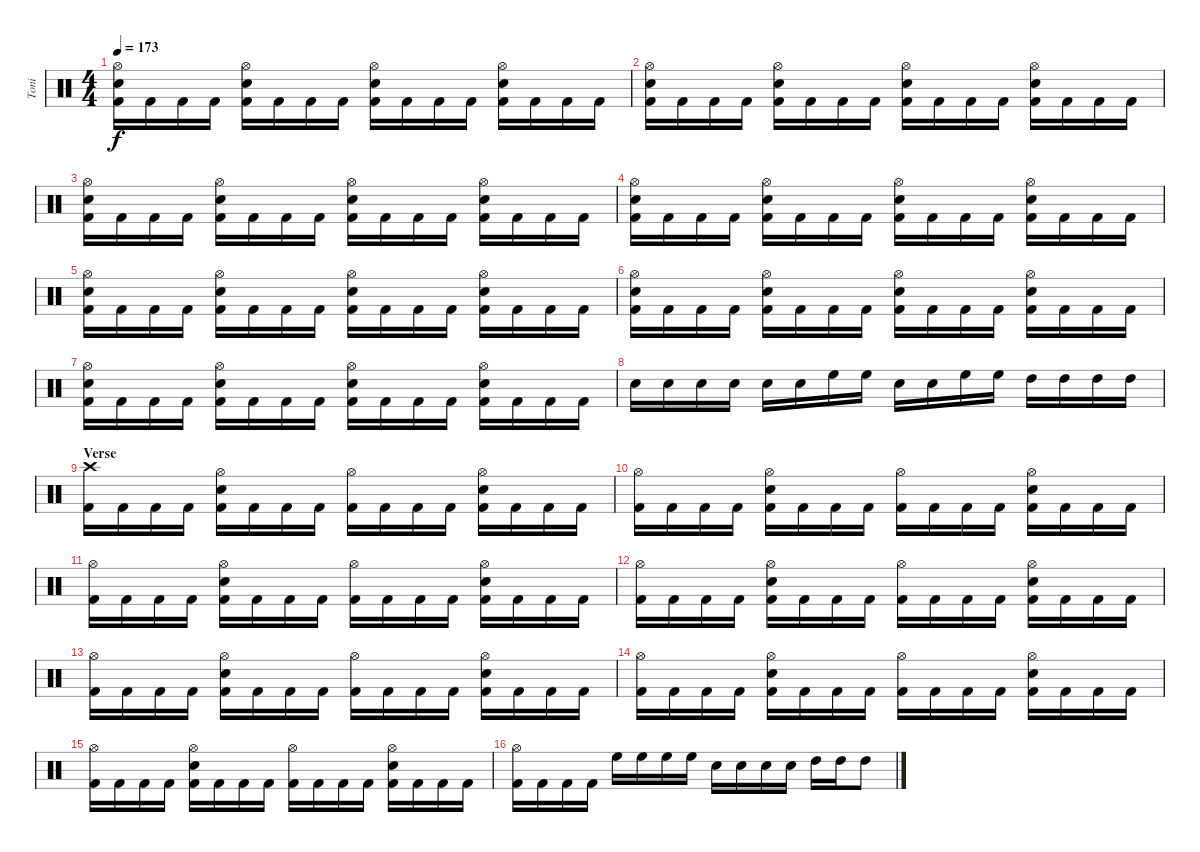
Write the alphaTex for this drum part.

\track ("Toni" "Toni") {instrument percussion}
\staff {score}
\articulation defaults
\ts (4 4)
\tempo 173
\clef neutral
\ks c
("Hi-Hat (open)" "Electric Snare (hit)" "Kick (hit) 2").16{dy f} "Kick (hit) 2".16 "Kick (hit) 2".16 "Kick (hit) 2".16 ("Hi-Hat (open)" "Electric Snare (hit)" "Kick (hit) 2").16 "Kick (hit) 2".16 "Kick (hit) 2".16 "Kick (hit) 2".16 ("Hi-Hat (open)" "Electric Snare (hit)" "Kick (hit) 2").16 "Kick (hit) 2".16 "Kick (hit) 2".16 "Kick (hit) 2".16 ("Hi-Hat (open)" "Electric Snare (hit)" "Kick (hit) 2").16 "Kick (hit) 2".16 "Kick (hit) 2".16 "Kick (hit) 2".16 |
("Hi-Hat (open)" "Electric Snare (hit)" "Kick (hit) 2").16 "Kick (hit) 2".16 "Kick (hit) 2".16 "Kick (hit) 2".16 ("Hi-Hat (open)" "Electric Snare (hit)" "Kick (hit) 2").16 "Kick (hit) 2".16 "Kick (hit) 2".16 "Kick (hit) 2".16 ("Hi-Hat (open)" "Electric Snare (hit)" "Kick (hit) 2").16 "Kick (hit) 2".16 "Kick (hit) 2".16 "Kick (hit) 2".16 ("Hi-Hat (open)" "Electric Snare (hit)" "Kick (hit) 2").16 "Kick (hit) 2".16 "Kick (hit) 2".16 "Kick (hit) 2".16 |
("Hi-Hat (open)" "Electric Snare (hit)" "Kick (hit) 2").16 "Kick (hit) 2".16 "Kick (hit) 2".16 "Kick (hit) 2".16 ("Hi-Hat (open)" "Electric Snare (hit)" "Kick (hit) 2").16 "Kick (hit) 2".16 "Kick (hit) 2".16 "Kick (hit) 2".16 ("Hi-Hat (open)" "Electric Snare (hit)" "Kick (hit) 2").16 "Kick (hit) 2".16 "Kick (hit) 2".16 "Kick (hit) 2".16 ("Hi-Hat (open)" "Electric Snare (hit)" "Kick (hit) 2").16 "Kick (hit) 2".16 "Kick (hit) 2".16 "Kick (hit) 2".16 |
("Hi-Hat (open)" "Electric Snare (hit)" "Kick (hit) 2").16 "Kick (hit) 2".16 "Kick (hit) 2".16 "Kick (hit) 2".16 ("Hi-Hat (open)" "Electric Snare (hit)" "Kick (hit) 2").16 "Kick (hit) 2".16 "Kick (hit) 2".16 "Kick (hit) 2".16 ("Hi-Hat (open)" "Electric Snare (hit)" "Kick (hit) 2").16 "Kick (hit) 2".16 "Kick (hit) 2".16 "Kick (hit) 2".16 ("Hi-Hat (open)" "Electric Snare (hit)" "Kick (hit) 2").16 "Kick (hit) 2".16 "Kick (hit) 2".16 "Kick (hit) 2".16 |
("Hi-Hat (open)" "Electric Snare (hit)" "Kick (hit) 2").16 "Kick (hit) 2".16 "Kick (hit) 2".16 "Kick (hit) 2".16 ("Hi-Hat (open)" "Electric Snare (hit)" "Kick (hit) 2").16 "Kick (hit) 2".16 "Kick (hit) 2".16 "Kick (hit) 2".16 ("Hi-Hat (open)" "Electric Snare (hit)" "Kick (hit) 2").16 "Kick (hit) 2".16 "Kick (hit) 2".16 "Kick (hit) 2".16 ("Hi-Hat (open)" "Electric Snare (hit)" "Kick (hit) 2").16 "Kick (hit) 2".16 "Kick (hit) 2".16 "Kick (hit) 2".16 |
("Hi-Hat (open)" "Electric Snare (hit)" "Kick (hit) 2").16 "Kick (hit) 2".16 "Kick (hit) 2".16 "Kick (hit) 2".16 ("Hi-Hat (open)" "Electric Snare (hit)" "Kick (hit) 2").16 "Kick (hit) 2".16 "Kick (hit) 2".16 "Kick (hit) 2".16 ("Hi-Hat (open)" "Electric Snare (hit)" "Kick (hit) 2").16 "Kick (hit) 2".16 "Kick (hit) 2".16 "Kick (hit) 2".16 ("Hi-Hat (open)" "Electric Snare (hit)" "Kick (hit) 2").16 "Kick (hit) 2".16 "Kick (hit) 2".16 "Kick (hit) 2".16 |
("Hi-Hat (open)" "Electric Snare (hit)" "Kick (hit) 2").16 "Kick (hit) 2".16 "Kick (hit) 2".16 "Kick (hit) 2".16 ("Hi-Hat (open)" "Electric Snare (hit)" "Kick (hit) 2").16 "Kick (hit) 2".16 "Kick (hit) 2".16 "Kick (hit) 2".16 ("Hi-Hat (open)" "Electric Snare (hit)" "Kick (hit) 2").16 "Kick (hit) 2".16 "Kick (hit) 2".16 "Kick (hit) 2".16 ("Hi-Hat (open)" "Electric Snare (hit)" "Kick (hit) 2").16 "Kick (hit) 2".16 "Kick (hit) 2".16 "Kick (hit) 2".16 |
"Electric Snare (hit)".16 "Electric Snare (hit)".16 "Electric Snare (hit)".16 "Electric Snare (hit)".16 "Electric Snare (hit)".16 "Electric Snare (hit)".16 "High Floor Tom (hit)".16 "High Floor Tom (hit)".16 "Electric Snare (hit)".16 "Electric Snare (hit)".16 "High Floor Tom (hit)".16 "High Floor Tom (hit)".16 "High Tom (hit)".16 "High Tom (hit)".16 "High Tom (hit)".16 "High Tom (hit)".16 |
\section ("" "Verse")
("Crash high (hit)" "Kick (hit) 2").16 "Kick (hit) 2".16 "Kick (hit) 2".16 "Kick (hit) 2".16 ("Hi-Hat (open)" "Electric Snare (hit)" "Kick (hit) 2").16 "Kick (hit) 2".16 "Kick (hit) 2".16 "Kick (hit) 2".16 ("Hi-Hat (open)" "Kick (hit) 2").16 "Kick (hit) 2".16 "Kick (hit) 2".16 "Kick (hit) 2".16 ("Hi-Hat (open)" "Electric Snare (hit)" "Kick (hit) 2").16 "Kick (hit) 2".16 "Kick (hit) 2".16 "Kick (hit) 2".16 |
("Hi-Hat (open)" "Kick (hit) 2").16 "Kick (hit) 2".16 "Kick (hit) 2".16 "Kick (hit) 2".16 ("Hi-Hat (open)" "Electric Snare (hit)" "Kick (hit) 2").16 "Kick (hit) 2".16 "Kick (hit) 2".16 "Kick (hit) 2".16 ("Hi-Hat (open)" "Kick (hit) 2").16 "Kick (hit) 2".16 "Kick (hit) 2".16 "Kick (hit) 2".16 ("Hi-Hat (open)" "Electric Snare (hit)" "Kick (hit) 2").16 "Kick (hit) 2".16 "Kick (hit) 2".16 "Kick (hit) 2".16 |
("Hi-Hat (open)" "Kick (hit) 2").16 "Kick (hit) 2".16 "Kick (hit) 2".16 "Kick (hit) 2".16 ("Hi-Hat (open)" "Electric Snare (hit)" "Kick (hit) 2").16 "Kick (hit) 2".16 "Kick (hit) 2".16 "Kick (hit) 2".16 ("Hi-Hat (open)" "Kick (hit) 2").16 "Kick (hit) 2".16 "Kick (hit) 2".16 "Kick (hit) 2".16 ("Hi-Hat (open)" "Electric Snare (hit)" "Kick (hit) 2").16 "Kick (hit) 2".16 "Kick (hit) 2".16 "Kick (hit) 2".16 |
("Hi-Hat (open)" "Kick (hit) 2").16 "Kick (hit) 2".16 "Kick (hit) 2".16 "Kick (hit) 2".16 ("Hi-Hat (open)" "Electric Snare (hit)" "Kick (hit) 2").16 "Kick (hit) 2".16 "Kick (hit) 2".16 "Kick (hit) 2".16 ("Hi-Hat (open)" "Kick (hit) 2").16 "Kick (hit) 2".16 "Kick (hit) 2".16 "Kick (hit) 2".16 ("Hi-Hat (open)" "Electric Snare (hit)" "Kick (hit) 2").16 "Kick (hit) 2".16 "Kick (hit) 2".16 "Kick (hit) 2".16 |
("Hi-Hat (open)" "Kick (hit) 2").16 "Kick (hit) 2".16 "Kick (hit) 2".16 "Kick (hit) 2".16 ("Hi-Hat (open)" "Electric Snare (hit)" "Kick (hit) 2").16 "Kick (hit) 2".16 "Kick (hit) 2".16 "Kick (hit) 2".16 ("Hi-Hat (open)" "Kick (hit) 2").16 "Kick (hit) 2".16 "Kick (hit) 2".16 "Kick (hit) 2".16 ("Hi-Hat (open)" "Electric Snare (hit)" "Kick (hit) 2").16 "Kick (hit) 2".16 "Kick (hit) 2".16 "Kick (hit) 2".16 |
("Hi-Hat (open)" "Kick (hit) 2").16 "Kick (hit) 2".16 "Kick (hit) 2".16 "Kick (hit) 2".16 ("Hi-Hat (open)" "Electric Snare (hit)" "Kick (hit) 2").16 "Kick (hit) 2".16 "Kick (hit) 2".16 "Kick (hit) 2".16 ("Hi-Hat (open)" "Kick (hit) 2").16 "Kick (hit) 2".16 "Kick (hit) 2".16 "Kick (hit) 2".16 ("Hi-Hat (open)" "Electric Snare (hit)" "Kick (hit) 2").16 "Kick (hit) 2".16 "Kick (hit) 2".16 "Kick (hit) 2".16 |
("Hi-Hat (open)" "Kick (hit) 2").16 "Kick (hit) 2".16 "Kick (hit) 2".16 "Kick (hit) 2".16 ("Hi-Hat (open)" "Electric Snare (hit)" "Kick (hit) 2").16 "Kick (hit) 2".16 "Kick (hit) 2".16 "Kick (hit) 2".16 ("Hi-Hat (open)" "Kick (hit) 2").16 "Kick (hit) 2".16 "Kick (hit) 2".16 "Kick (hit) 2".16 ("Hi-Hat (open)" "Electric Snare (hit)" "Kick (hit) 2").16 "Kick (hit) 2".16 "Kick (hit) 2".16 "Kick (hit) 2".16 |
("Hi-Hat (open)" "Kick (hit) 2").16 "Kick (hit) 2".16 "Kick (hit) 2".16 "Kick (hit) 2".16 "High Floor Tom (hit)".16 "High Floor Tom (hit)".16 "High Floor Tom (hit)".16 "High Floor Tom (hit)".16 "Electric Snare (hit)".16 "Electric Snare (hit)".16 "Electric Snare (hit)".16 "Electric Snare (hit)".16 "High Tom (hit)".16 "High Tom (hit)".16 "High Tom (hit)".8
